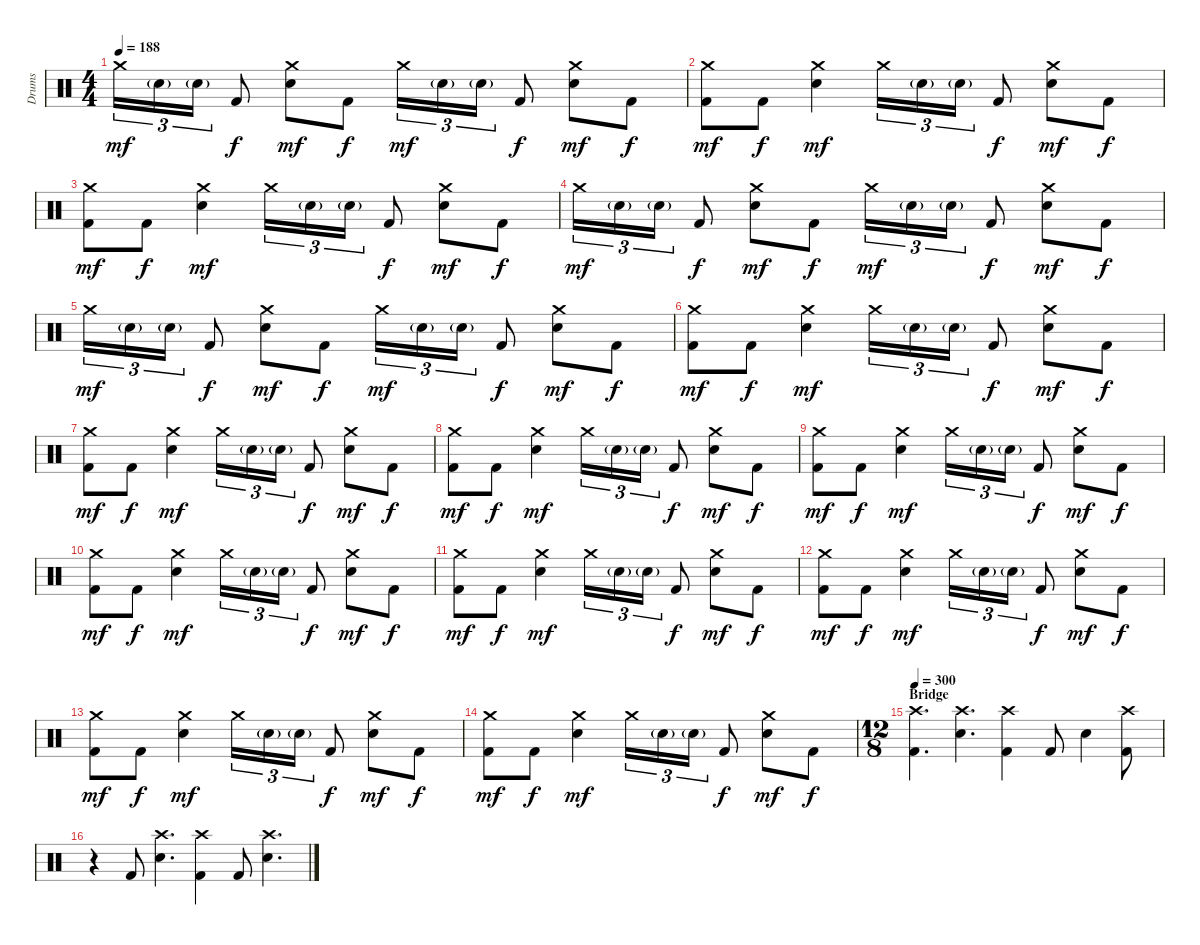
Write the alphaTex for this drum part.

\track ("Drums" "Drums") {instrument percussion}
\staff {score}
\articulation defaults
\ts (4 4)
\tempo 188
\clef neutral
\ks c "Crash medium (hit)".16{tu (3 2) dy mf} "Electric Snare (hit)"{g}.16{tu (3 2)} "Electric Snare (hit)"{g}.16{tu (3 2)} "Kick (hit) 2".8{dy f}
("Crash medium (hit)" "Electric Snare (hit)").8{dy mf} "Kick (hit) 2".8{dy f} "Crash medium (hit)".16{tu (3 2) dy mf} "Electric Snare (hit)"{g}.16{tu (3 2)} "Electric Snare (hit)"{g}.16{tu (3 2)} "Kick (hit) 2".8{dy f} ("Crash medium (hit)" "Electric Snare (hit)").8{dy mf} "Kick (hit) 2".8{dy f} |
("Crash medium (hit)" "Kick (hit) 2").8{dy mf} "Kick (hit) 2".8{dy f} ("Crash medium (hit)" "Electric Snare (hit)").4{dy mf} "Crash medium (hit)".16{tu (3 2)} "Electric Snare (hit)"{g}.16{tu (3 2)} "Electric Snare (hit)"{g}.16{tu (3 2)} "Kick (hit) 2".8{dy f} ("Crash medium (hit)" "Electric Snare (hit)").8{dy mf} "Kick (hit) 2".8{dy f} |
("Crash medium (hit)" "Kick (hit) 2").8{dy mf} "Kick (hit) 2".8{dy f} ("Crash medium (hit)" "Electric Snare (hit)").4{dy mf} "Crash medium (hit)".16{tu (3 2)} "Electric Snare (hit)"{g}.16{tu (3 2)} "Electric Snare (hit)"{g}.16{tu (3 2)} "Kick (hit) 2".8{dy f} ("Crash medium (hit)" "Electric Snare (hit)").8{dy mf} "Kick (hit) 2".8{dy f} |
"Crash medium (hit)".16{tu (3 2) dy mf} "Electric Snare (hit)"{g}.16{tu (3 2)} "Electric Snare (hit)"{g}.16{tu (3 2)} "Kick (hit) 2".8{dy f} ("Crash medium (hit)" "Electric Snare (hit)").8{dy mf} "Kick (hit) 2".8{dy f} "Crash medium (hit)".16{tu (3 2) dy mf} "Electric Snare (hit)"{g}.16{tu (3 2)} "Electric Snare (hit)"{g}.16{tu (3 2)} "Kick (hit) 2".8{dy f} ("Crash medium (hit)" "Electric Snare (hit)").8{dy mf} "Kick (hit) 2".8{dy f} |
"Crash medium (hit)".16{tu (3 2) dy mf} "Electric Snare (hit)"{g}.16{tu (3 2)} "Electric Snare (hit)"{g}.16{tu (3 2)} "Kick (hit) 2".8{dy f} ("Crash medium (hit)" "Electric Snare (hit)").8{dy mf} "Kick (hit) 2".8{dy f} "Crash medium (hit)".16{tu (3 2) dy mf} "Electric Snare (hit)"{g}.16{tu (3 2)} "Electric Snare (hit)"{g}.16{tu (3 2)} "Kick (hit) 2".8{dy f} ("Crash medium (hit)" "Electric Snare (hit)").8{dy mf} "Kick (hit) 2".8{dy f} |
("Crash medium (hit)" "Kick (hit) 2").8{dy mf} "Kick (hit) 2".8{dy f} ("Crash medium (hit)" "Electric Snare (hit)").4{dy mf} "Crash medium (hit)".16{tu (3 2)} "Electric Snare (hit)"{g}.16{tu (3 2)} "Electric Snare (hit)"{g}.16{tu (3 2)} "Kick (hit) 2".8{dy f} ("Crash medium (hit)" "Electric Snare (hit)").8{dy mf} "Kick (hit) 2".8{dy f} |
("Crash medium (hit)" "Kick (hit) 2").8{dy mf} "Kick (hit) 2".8{dy f} ("Crash medium (hit)" "Electric Snare (hit)").4{dy mf} "Crash medium (hit)".16{tu (3 2)} "Electric Snare (hit)"{g}.16{tu (3 2)} "Electric Snare (hit)"{g}.16{tu (3 2)} "Kick (hit) 2".8{dy f} ("Crash medium (hit)" "Electric Snare (hit)").8{dy mf} "Kick (hit) 2".8{dy f} |
("Crash medium (hit)" "Kick (hit) 2").8{dy mf} "Kick (hit) 2".8{dy f} ("Crash medium (hit)" "Electric Snare (hit)").4{dy mf} "Crash medium (hit)".16{tu (3 2)} "Electric Snare (hit)"{g}.16{tu (3 2)} "Electric Snare (hit)"{g}.16{tu (3 2)} "Kick (hit) 2".8{dy f} ("Crash medium (hit)" "Electric Snare (hit)").8{dy mf} "Kick (hit) 2".8{dy f} |
("Crash medium (hit)" "Kick (hit) 2").8{dy mf} "Kick (hit) 2".8{dy f} ("Crash medium (hit)" "Electric Snare (hit)").4{dy mf} "Crash medium (hit)".16{tu (3 2)} "Electric Snare (hit)"{g}.16{tu (3 2)} "Electric Snare (hit)"{g}.16{tu (3 2)} "Kick (hit) 2".8{dy f} ("Crash medium (hit)" "Electric Snare (hit)").8{dy mf} "Kick (hit) 2".8{dy f} |
("Crash medium (hit)" "Kick (hit) 2").8{dy mf} "Kick (hit) 2".8{dy f} ("Crash medium (hit)" "Electric Snare (hit)").4{dy mf} "Crash medium (hit)".16{tu (3 2)} "Electric Snare (hit)"{g}.16{tu (3 2)} "Electric Snare (hit)"{g}.16{tu (3 2)} "Kick (hit) 2".8{dy f} ("Crash medium (hit)" "Electric Snare (hit)").8{dy mf} "Kick (hit) 2".8{dy f} |
("Crash medium (hit)" "Kick (hit) 2").8{dy mf} "Kick (hit) 2".8{dy f} ("Crash medium (hit)" "Electric Snare (hit)").4{dy mf} "Crash medium (hit)".16{tu (3 2)} "Electric Snare (hit)"{g}.16{tu (3 2)} "Electric Snare (hit)"{g}.16{tu (3 2)} "Kick (hit) 2".8{dy f} ("Crash medium (hit)" "Electric Snare (hit)").8{dy mf} "Kick (hit) 2".8{dy f} |
("Crash medium (hit)" "Kick (hit) 2").8{dy mf} "Kick (hit) 2".8{dy f} ("Crash medium (hit)" "Electric Snare (hit)").4{dy mf} "Crash medium (hit)".16{tu (3 2)} "Electric Snare (hit)"{g}.16{tu (3 2)} "Electric Snare (hit)"{g}.16{tu (3 2)} "Kick (hit) 2".8{dy f} ("Crash medium (hit)" "Electric Snare (hit)").8{dy mf} "Kick (hit) 2".8{dy f} |
("Crash medium (hit)" "Kick (hit) 2").8{dy mf} "Kick (hit) 2".8{dy f} ("Crash medium (hit)" "Electric Snare (hit)").4{dy mf} "Crash medium (hit)".16{tu (3 2)} "Electric Snare (hit)"{g}.16{tu (3 2)} "Electric Snare (hit)"{g}.16{tu (3 2)} "Kick (hit) 2".8{dy f} ("Crash medium (hit)" "Electric Snare (hit)").8{dy mf} "Kick (hit) 2".8{dy f} |
("Crash medium (hit)" "Kick (hit) 2").8{dy mf} "Kick (hit) 2".8{dy f} ("Crash medium (hit)" "Electric Snare (hit)").4{dy mf} "Crash medium (hit)".16{tu (3 2)} "Electric Snare (hit)"{g}.16{tu (3 2)} "Electric Snare (hit)"{g}.16{tu (3 2)} "Kick (hit) 2".8{dy f} ("Crash medium (hit)" "Electric Snare (hit)").8{dy mf} "Kick (hit) 2".8{dy f} |
\ts (12 8)
\section ("" "Bridge")
\tempo 300
("Crash high (hit)" "Kick (hit) 2").4{d volume 16} ("Crash high (hit)" "Electric Snare (hit)").4{d} ("Crash high (hit)" "Kick (hit) 2").4 "Kick (hit) 2".8 "Electric Snare (hit)".4 ("Crash high (hit)" "Kick (hit) 2").8 |
r.4 "Kick (hit) 2".8 ("Crash high (hit)" "Electric Snare (hit)").4{d} ("Crash high (hit)" "Kick (hit) 2").4 "Kick (hit) 2".8 ("Crash high (hit)" "Electric Snare (hit)").4{d}
